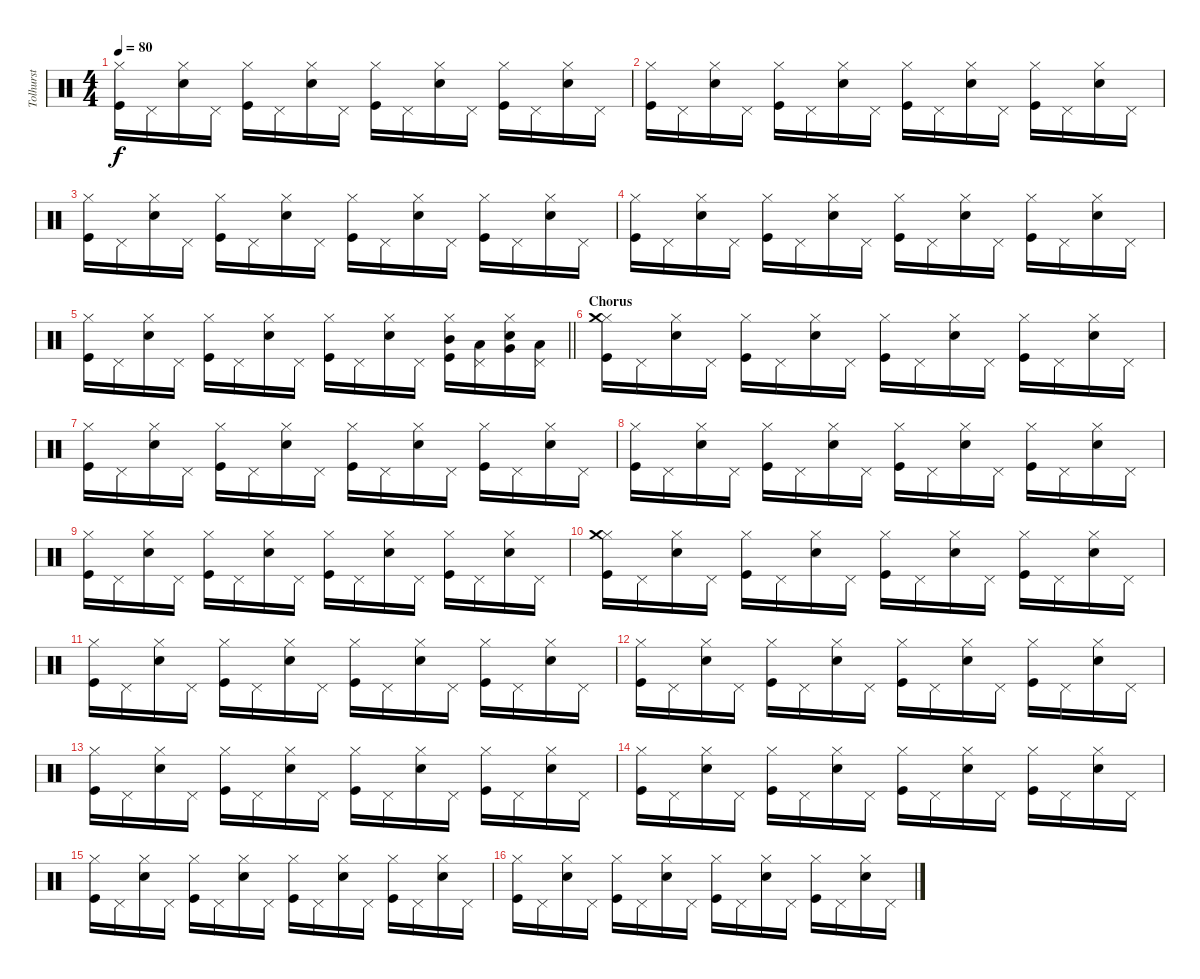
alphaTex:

\track ("Tolhurst" "Tolhurst") {instrument percussion}
\staff {score}
\articulation defaults
\ts (4 4)
\tempo 80
\clef neutral
\ks c
("Kick (hit)" "Hi-Hat (closed)").16{dy f} "Pedal Hi-Hat (hit)".16 ("Snare (hit) 2" "Hi-Hat (closed)").16 "Pedal Hi-Hat (hit)".16 ("Kick (hit)" "Hi-Hat (closed)").16 "Pedal Hi-Hat (hit)".16 ("Snare (hit) 2" "Hi-Hat (closed)").16 "Pedal Hi-Hat (hit)".16 ("Kick (hit)" "Hi-Hat (closed)").16 "Pedal Hi-Hat (hit)".16 ("Snare (hit) 2" "Hi-Hat (closed)").16 "Pedal Hi-Hat (hit)".16 ("Kick (hit)" "Hi-Hat (closed)").16 "Pedal Hi-Hat (hit)".16 ("Snare (hit) 2" "Hi-Hat (closed)").16 "Pedal Hi-Hat (hit)".16 |
("Kick (hit)" "Hi-Hat (closed)").16 "Pedal Hi-Hat (hit)".16 ("Snare (hit) 2" "Hi-Hat (closed)").16 "Pedal Hi-Hat (hit)".16 ("Kick (hit)" "Hi-Hat (closed)").16 "Pedal Hi-Hat (hit)".16 ("Snare (hit) 2" "Hi-Hat (closed)").16 "Pedal Hi-Hat (hit)".16 ("Kick (hit)" "Hi-Hat (closed)").16 "Pedal Hi-Hat (hit)".16 ("Snare (hit) 2" "Hi-Hat (closed)").16 "Pedal Hi-Hat (hit)".16 ("Kick (hit)" "Hi-Hat (closed)").16 "Pedal Hi-Hat (hit)".16 ("Snare (hit) 2" "Hi-Hat (closed)").16 "Pedal Hi-Hat (hit)".16 |
("Kick (hit)" "Hi-Hat (closed)").16 "Pedal Hi-Hat (hit)".16 ("Snare (hit) 2" "Hi-Hat (closed)").16 "Pedal Hi-Hat (hit)".16 ("Kick (hit)" "Hi-Hat (closed)").16 "Pedal Hi-Hat (hit)".16 ("Snare (hit) 2" "Hi-Hat (closed)").16 "Pedal Hi-Hat (hit)".16 ("Kick (hit)" "Hi-Hat (closed)").16 "Pedal Hi-Hat (hit)".16 ("Snare (hit) 2" "Hi-Hat (closed)").16 "Pedal Hi-Hat (hit)".16 ("Kick (hit)" "Hi-Hat (closed)").16 "Pedal Hi-Hat (hit)".16 ("Snare (hit) 2" "Hi-Hat (closed)").16 "Pedal Hi-Hat (hit)".16 |
("Kick (hit)" "Hi-Hat (closed)").16 "Pedal Hi-Hat (hit)".16 ("Snare (hit) 2" "Hi-Hat (closed)").16 "Pedal Hi-Hat (hit)".16 ("Kick (hit)" "Hi-Hat (closed)").16 "Pedal Hi-Hat (hit)".16 ("Snare (hit) 2" "Hi-Hat (closed)").16 "Pedal Hi-Hat (hit)".16 ("Kick (hit)" "Hi-Hat (closed)").16 "Pedal Hi-Hat (hit)".16 ("Snare (hit) 2" "Hi-Hat (closed)").16 "Pedal Hi-Hat (hit)".16 ("Kick (hit)" "Hi-Hat (closed)").16 "Pedal Hi-Hat (hit)".16 ("Snare (hit) 2" "Hi-Hat (closed)").16 "Pedal Hi-Hat (hit)".16 |
\barLineRight lightlight
("Kick (hit)" "Hi-Hat (closed)").16 "Pedal Hi-Hat (hit)".16 ("Snare (hit) 2" "Hi-Hat (closed)").16 "Pedal Hi-Hat (hit)".16 ("Kick (hit)" "Hi-Hat (closed)").16 "Pedal Hi-Hat (hit)".16 ("Snare (hit) 2" "Hi-Hat (closed)").16 "Pedal Hi-Hat (hit)".16 ("Kick (hit)" "Hi-Hat (closed)").16 "Pedal Hi-Hat (hit)".16 ("Snare (hit) 2" "Hi-Hat (closed)").16 "Pedal Hi-Hat (hit)".16 ("Kick (hit)" "Hi-Hat (closed)" "Mid Tom (hit)").16 ("Pedal Hi-Hat (hit)" "Low Tom (hit)").16 ("Snare (hit) 2" "Hi-Hat (closed)" "Very Low Tom (hit)").16 ("Pedal Hi-Hat (hit)" "Low Floor Tom (hit)").16 |
\section ("" "Chorus")
("Kick (hit)" "Hi-Hat (closed)" "Crash medium (hit)").16 "Pedal Hi-Hat (hit)".16 ("Snare (hit) 2" "Hi-Hat (closed)").16 "Pedal Hi-Hat (hit)".16 ("Kick (hit)" "Hi-Hat (closed)").16 "Pedal Hi-Hat (hit)".16 ("Snare (hit) 2" "Hi-Hat (closed)").16 "Pedal Hi-Hat (hit)".16 ("Kick (hit)" "Hi-Hat (closed)").16 "Pedal Hi-Hat (hit)".16 ("Snare (hit) 2" "Hi-Hat (closed)").16 "Pedal Hi-Hat (hit)".16 ("Kick (hit)" "Hi-Hat (closed)").16 "Pedal Hi-Hat (hit)".16 ("Snare (hit) 2" "Hi-Hat (closed)").16 "Pedal Hi-Hat (hit)".16 |
("Kick (hit)" "Hi-Hat (closed)").16 "Pedal Hi-Hat (hit)".16 ("Snare (hit) 2" "Hi-Hat (closed)").16 "Pedal Hi-Hat (hit)".16 ("Kick (hit)" "Hi-Hat (closed)").16 "Pedal Hi-Hat (hit)".16 ("Snare (hit) 2" "Hi-Hat (closed)").16 "Pedal Hi-Hat (hit)".16 ("Kick (hit)" "Hi-Hat (closed)").16 "Pedal Hi-Hat (hit)".16 ("Snare (hit) 2" "Hi-Hat (closed)").16 "Pedal Hi-Hat (hit)".16 ("Kick (hit)" "Hi-Hat (closed)").16 "Pedal Hi-Hat (hit)".16 ("Snare (hit) 2" "Hi-Hat (closed)").16 "Pedal Hi-Hat (hit)".16 |
("Kick (hit)" "Hi-Hat (closed)").16 "Pedal Hi-Hat (hit)".16 ("Snare (hit) 2" "Hi-Hat (closed)").16 "Pedal Hi-Hat (hit)".16 ("Kick (hit)" "Hi-Hat (closed)").16 "Pedal Hi-Hat (hit)".16 ("Snare (hit) 2" "Hi-Hat (closed)").16 "Pedal Hi-Hat (hit)".16 ("Kick (hit)" "Hi-Hat (closed)").16 "Pedal Hi-Hat (hit)".16 ("Snare (hit) 2" "Hi-Hat (closed)").16 "Pedal Hi-Hat (hit)".16 ("Kick (hit)" "Hi-Hat (closed)").16 "Pedal Hi-Hat (hit)".16 ("Snare (hit) 2" "Hi-Hat (closed)").16 "Pedal Hi-Hat (hit)".16 |
("Kick (hit)" "Hi-Hat (closed)").16 "Pedal Hi-Hat (hit)".16 ("Snare (hit) 2" "Hi-Hat (closed)").16 "Pedal Hi-Hat (hit)".16 ("Kick (hit)" "Hi-Hat (closed)").16 "Pedal Hi-Hat (hit)".16 ("Snare (hit) 2" "Hi-Hat (closed)").16 "Pedal Hi-Hat (hit)".16 ("Kick (hit)" "Hi-Hat (closed)").16 "Pedal Hi-Hat (hit)".16 ("Snare (hit) 2" "Hi-Hat (closed)").16 "Pedal Hi-Hat (hit)".16 ("Kick (hit)" "Hi-Hat (closed)").16 "Pedal Hi-Hat (hit)".16 ("Snare (hit) 2" "Hi-Hat (closed)").16 "Pedal Hi-Hat (hit)".16 |
("Kick (hit)" "Hi-Hat (closed)" "Crash medium (hit)").16 "Pedal Hi-Hat (hit)".16 ("Snare (hit) 2" "Hi-Hat (closed)").16 "Pedal Hi-Hat (hit)".16 ("Kick (hit)" "Hi-Hat (closed)").16 "Pedal Hi-Hat (hit)".16 ("Snare (hit) 2" "Hi-Hat (closed)").16 "Pedal Hi-Hat (hit)".16 ("Kick (hit)" "Hi-Hat (closed)").16 "Pedal Hi-Hat (hit)".16 ("Snare (hit) 2" "Hi-Hat (closed)").16 "Pedal Hi-Hat (hit)".16 ("Kick (hit)" "Hi-Hat (closed)").16 "Pedal Hi-Hat (hit)".16 ("Snare (hit) 2" "Hi-Hat (closed)").16 "Pedal Hi-Hat (hit)".16 |
("Kick (hit)" "Hi-Hat (closed)").16 "Pedal Hi-Hat (hit)".16 ("Snare (hit) 2" "Hi-Hat (closed)").16 "Pedal Hi-Hat (hit)".16 ("Kick (hit)" "Hi-Hat (closed)").16 "Pedal Hi-Hat (hit)".16 ("Snare (hit) 2" "Hi-Hat (closed)").16 "Pedal Hi-Hat (hit)".16 ("Kick (hit)" "Hi-Hat (closed)").16 "Pedal Hi-Hat (hit)".16 ("Snare (hit) 2" "Hi-Hat (closed)").16 "Pedal Hi-Hat (hit)".16 ("Kick (hit)" "Hi-Hat (closed)").16 "Pedal Hi-Hat (hit)".16 ("Snare (hit) 2" "Hi-Hat (closed)").16 "Pedal Hi-Hat (hit)".16 |
("Kick (hit)" "Hi-Hat (closed)").16 "Pedal Hi-Hat (hit)".16 ("Snare (hit) 2" "Hi-Hat (closed)").16 "Pedal Hi-Hat (hit)".16 ("Kick (hit)" "Hi-Hat (closed)").16 "Pedal Hi-Hat (hit)".16 ("Snare (hit) 2" "Hi-Hat (closed)").16 "Pedal Hi-Hat (hit)".16 ("Kick (hit)" "Hi-Hat (closed)").16 "Pedal Hi-Hat (hit)".16 ("Snare (hit) 2" "Hi-Hat (closed)").16 "Pedal Hi-Hat (hit)".16 ("Kick (hit)" "Hi-Hat (closed)").16 "Pedal Hi-Hat (hit)".16 ("Snare (hit) 2" "Hi-Hat (closed)").16 "Pedal Hi-Hat (hit)".16 |
("Kick (hit)" "Hi-Hat (closed)").16 "Pedal Hi-Hat (hit)".16 ("Snare (hit) 2" "Hi-Hat (closed)").16 "Pedal Hi-Hat (hit)".16 ("Kick (hit)" "Hi-Hat (closed)").16 "Pedal Hi-Hat (hit)".16 ("Snare (hit) 2" "Hi-Hat (closed)").16 "Pedal Hi-Hat (hit)".16 ("Kick (hit)" "Hi-Hat (closed)").16 "Pedal Hi-Hat (hit)".16 ("Snare (hit) 2" "Hi-Hat (closed)").16 "Pedal Hi-Hat (hit)".16 ("Kick (hit)" "Hi-Hat (closed)").16 "Pedal Hi-Hat (hit)".16 ("Snare (hit) 2" "Hi-Hat (closed)").16 "Pedal Hi-Hat (hit)".16 |
("Kick (hit)" "Hi-Hat (closed)").16 "Pedal Hi-Hat (hit)".16 ("Snare (hit) 2" "Hi-Hat (closed)").16 "Pedal Hi-Hat (hit)".16 ("Kick (hit)" "Hi-Hat (closed)").16 "Pedal Hi-Hat (hit)".16 ("Snare (hit) 2" "Hi-Hat (closed)").16 "Pedal Hi-Hat (hit)".16 ("Kick (hit)" "Hi-Hat (closed)").16 "Pedal Hi-Hat (hit)".16 ("Snare (hit) 2" "Hi-Hat (closed)").16 "Pedal Hi-Hat (hit)".16 ("Kick (hit)" "Hi-Hat (closed)").16 "Pedal Hi-Hat (hit)".16 ("Snare (hit) 2" "Hi-Hat (closed)").16 "Pedal Hi-Hat (hit)".16 |
("Kick (hit)" "Hi-Hat (closed)").16 "Pedal Hi-Hat (hit)".16 ("Snare (hit) 2" "Hi-Hat (closed)").16 "Pedal Hi-Hat (hit)".16 ("Kick (hit)" "Hi-Hat (closed)").16 "Pedal Hi-Hat (hit)".16 ("Snare (hit) 2" "Hi-Hat (closed)").16 "Pedal Hi-Hat (hit)".16 ("Kick (hit)" "Hi-Hat (closed)").16 "Pedal Hi-Hat (hit)".16 ("Snare (hit) 2" "Hi-Hat (closed)").16 "Pedal Hi-Hat (hit)".16 ("Kick (hit)" "Hi-Hat (closed)").16 "Pedal Hi-Hat (hit)".16 ("Snare (hit) 2" "Hi-Hat (closed)").16 "Pedal Hi-Hat (hit)".16 |
("Kick (hit)" "Hi-Hat (closed)").16 "Pedal Hi-Hat (hit)".16 ("Snare (hit) 2" "Hi-Hat (closed)").16 "Pedal Hi-Hat (hit)".16 ("Kick (hit)" "Hi-Hat (closed)").16 "Pedal Hi-Hat (hit)".16 ("Snare (hit) 2" "Hi-Hat (closed)").16 "Pedal Hi-Hat (hit)".16 ("Kick (hit)" "Hi-Hat (closed)").16 "Pedal Hi-Hat (hit)".16 ("Snare (hit) 2" "Hi-Hat (closed)").16 "Pedal Hi-Hat (hit)".16 ("Kick (hit)" "Hi-Hat (closed)").16 "Pedal Hi-Hat (hit)".16 ("Snare (hit) 2" "Hi-Hat (closed)").16 "Pedal Hi-Hat (hit)".16
